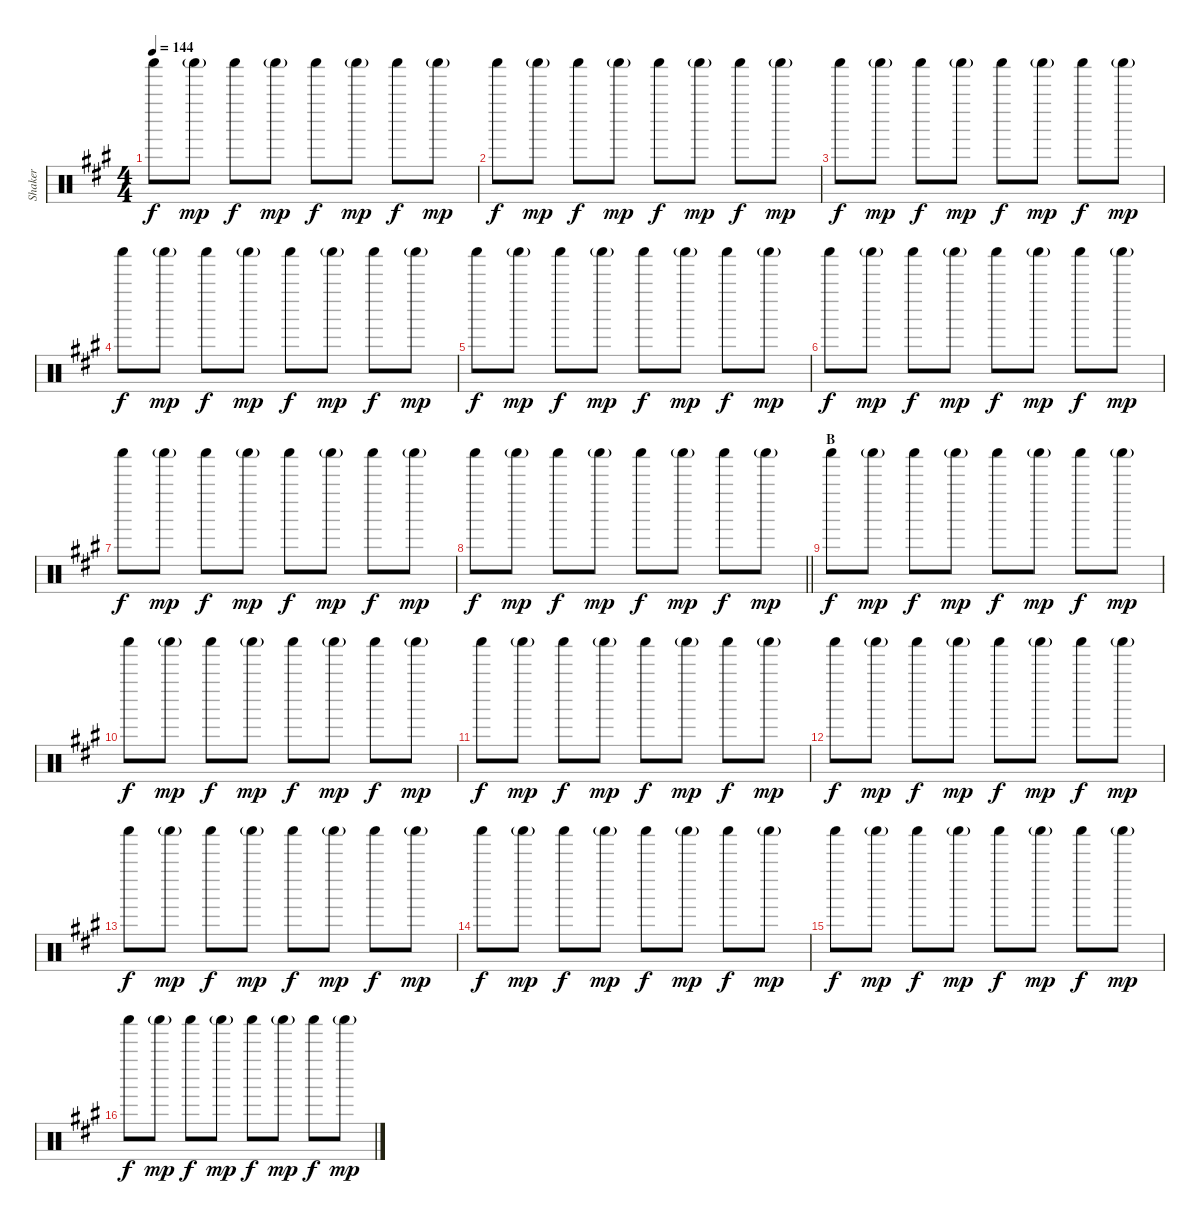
\track ("Shaker" "Shaker") {instrument percussion}
\staff {score}
\articulation defaults
\ts (4 4)
\tempo 144
\clef neutral
\ks a "Shaker (hit)".8{dy f} "Shaker (hit)"{g}.8{dy mp} "Shaker (hit)".8{dy f} "Shaker (hit)"{g}.8{dy mp} "Shaker (hit)".8{dy f} "Shaker (hit)"{g}.8{dy mp} "Shaker (hit)".8{dy f} "Shaker (hit)"{g}.8{dy mp}
|
"Shaker (hit)".8{dy f} "Shaker (hit)"{g}.8{dy mp} "Shaker (hit)".8{dy f} "Shaker (hit)"{g}.8{dy mp} "Shaker (hit)".8{dy f} "Shaker (hit)"{g}.8{dy mp} "Shaker (hit)".8{dy f} "Shaker (hit)"{g}.8{dy mp} |
"Shaker (hit)".8{dy f} "Shaker (hit)"{g}.8{dy mp} "Shaker (hit)".8{dy f} "Shaker (hit)"{g}.8{dy mp} "Shaker (hit)".8{dy f} "Shaker (hit)"{g}.8{dy mp} "Shaker (hit)".8{dy f} "Shaker (hit)"{g}.8{dy mp} |
"Shaker (hit)".8{dy f} "Shaker (hit)"{g}.8{dy mp} "Shaker (hit)".8{dy f} "Shaker (hit)"{g}.8{dy mp} "Shaker (hit)".8{dy f} "Shaker (hit)"{g}.8{dy mp} "Shaker (hit)".8{dy f} "Shaker (hit)"{g}.8{dy mp} |
"Shaker (hit)".8{dy f} "Shaker (hit)"{g}.8{dy mp} "Shaker (hit)".8{dy f} "Shaker (hit)"{g}.8{dy mp} "Shaker (hit)".8{dy f} "Shaker (hit)"{g}.8{dy mp} "Shaker (hit)".8{dy f} "Shaker (hit)"{g}.8{dy mp} |
"Shaker (hit)".8{dy f} "Shaker (hit)"{g}.8{dy mp} "Shaker (hit)".8{dy f} "Shaker (hit)"{g}.8{dy mp} "Shaker (hit)".8{dy f} "Shaker (hit)"{g}.8{dy mp} "Shaker (hit)".8{dy f} "Shaker (hit)"{g}.8{dy mp} |
"Shaker (hit)".8{dy f} "Shaker (hit)"{g}.8{dy mp} "Shaker (hit)".8{dy f} "Shaker (hit)"{g}.8{dy mp} "Shaker (hit)".8{dy f} "Shaker (hit)"{g}.8{dy mp} "Shaker (hit)".8{dy f} "Shaker (hit)"{g}.8{dy mp} |
\barLineRight lightlight "Shaker (hit)".8{dy f} "Shaker (hit)"{g}.8{dy mp} "Shaker (hit)".8{dy f} "Shaker (hit)"{g}.8{dy mp} "Shaker (hit)".8{dy f} "Shaker (hit)"{g}.8{dy mp} "Shaker (hit)".8{dy f} "Shaker (hit)"{g}.8{dy mp}
|
\section ("" "B")
"Shaker (hit)".8{dy f} "Shaker (hit)"{g}.8{dy mp} "Shaker (hit)".8{dy f} "Shaker (hit)"{g}.8{dy mp} "Shaker (hit)".8{dy f} "Shaker (hit)"{g}.8{dy mp} "Shaker (hit)".8{dy f} "Shaker (hit)"{g}.8{dy mp} |
"Shaker (hit)".8{dy f} "Shaker (hit)"{g}.8{dy mp} "Shaker (hit)".8{dy f} "Shaker (hit)"{g}.8{dy mp} "Shaker (hit)".8{dy f} "Shaker (hit)"{g}.8{dy mp} "Shaker (hit)".8{dy f} "Shaker (hit)"{g}.8{dy mp} |
"Shaker (hit)".8{dy f} "Shaker (hit)"{g}.8{dy mp} "Shaker (hit)".8{dy f} "Shaker (hit)"{g}.8{dy mp} "Shaker (hit)".8{dy f} "Shaker (hit)"{g}.8{dy mp} "Shaker (hit)".8{dy f} "Shaker (hit)"{g}.8{dy mp} |
"Shaker (hit)".8{dy f} "Shaker (hit)"{g}.8{dy mp} "Shaker (hit)".8{dy f} "Shaker (hit)"{g}.8{dy mp} "Shaker (hit)".8{dy f} "Shaker (hit)"{g}.8{dy mp} "Shaker (hit)".8{dy f} "Shaker (hit)"{g}.8{dy mp} |
"Shaker (hit)".8{dy f} "Shaker (hit)"{g}.8{dy mp} "Shaker (hit)".8{dy f} "Shaker (hit)"{g}.8{dy mp} "Shaker (hit)".8{dy f} "Shaker (hit)"{g}.8{dy mp} "Shaker (hit)".8{dy f} "Shaker (hit)"{g}.8{dy mp} |
"Shaker (hit)".8{dy f} "Shaker (hit)"{g}.8{dy mp} "Shaker (hit)".8{dy f} "Shaker (hit)"{g}.8{dy mp} "Shaker (hit)".8{dy f} "Shaker (hit)"{g}.8{dy mp} "Shaker (hit)".8{dy f} "Shaker (hit)"{g}.8{dy mp} |
"Shaker (hit)".8{dy f} "Shaker (hit)"{g}.8{dy mp} "Shaker (hit)".8{dy f} "Shaker (hit)"{g}.8{dy mp} "Shaker (hit)".8{dy f} "Shaker (hit)"{g}.8{dy mp} "Shaker (hit)".8{dy f} "Shaker (hit)"{g}.8{dy mp} |
"Shaker (hit)".8{dy f} "Shaker (hit)"{g}.8{dy mp} "Shaker (hit)".8{dy f} "Shaker (hit)"{g}.8{dy mp} "Shaker (hit)".8{dy f} "Shaker (hit)"{g}.8{dy mp} "Shaker (hit)".8{dy f} "Shaker (hit)"{g}.8{dy mp}
